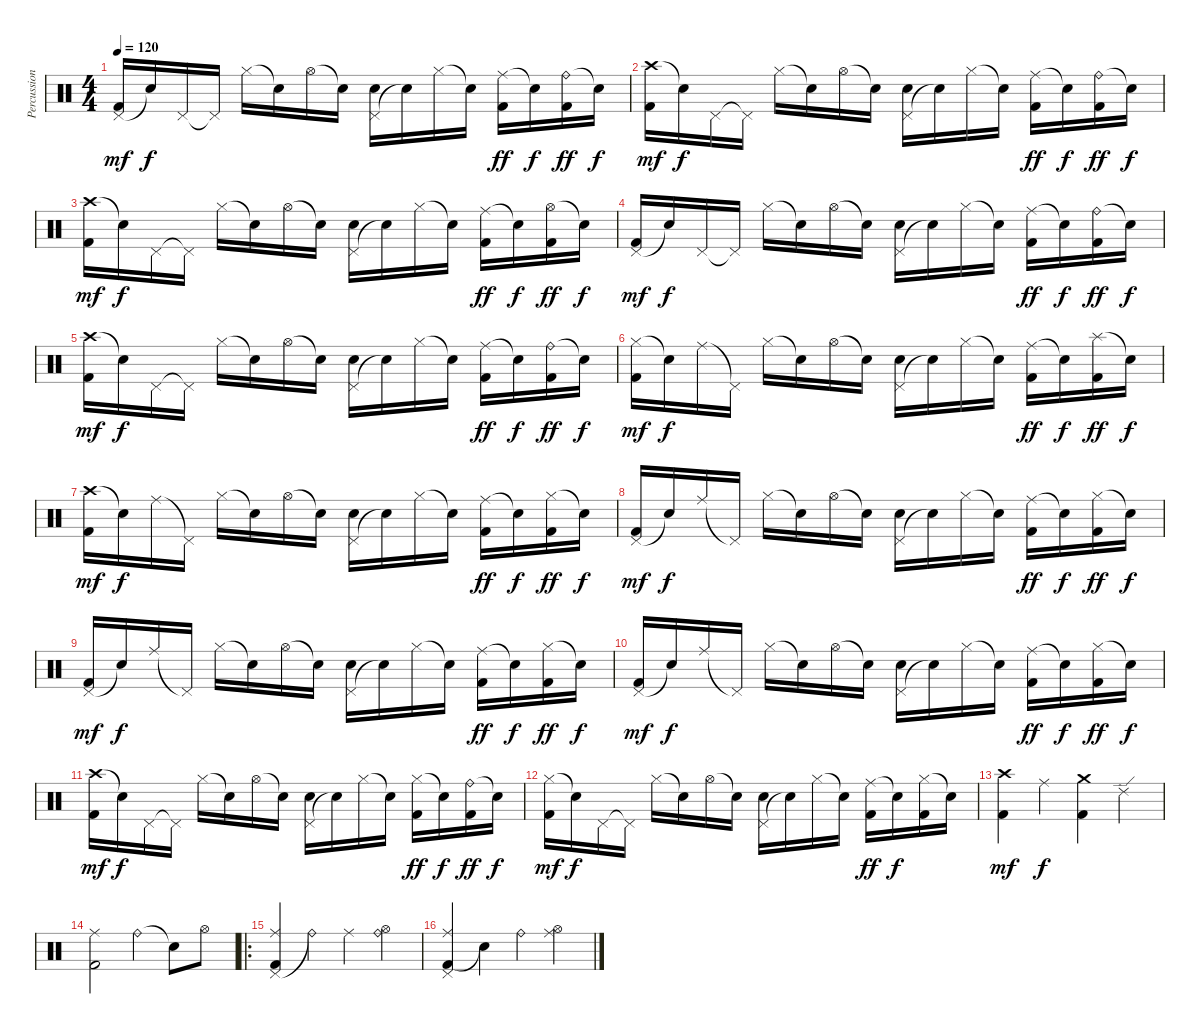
\track ("Percussioni" "Percussion") {instrument percussion}
\staff {score}
\articulation defaults
\ts (4 4)
\tempo 120
\clef neutral
\ks c
("Pedal Hi-Hat (hit)" "Kick (hit) 2").16{dy mf} "Snare (hit)"{t}.16{dy f} "Pedal Hi-Hat (hit)".16 "Pedal Hi-Hat (hit)"{t}.16 "Hi-Hat (closed)".16 "Snare (hit)"{t}.16 "Hi-Hat (open)".16 "Snare (hit)"{t}.16 ("Pedal Hi-Hat (hit)" "Metronome (bell)").16 "Snare (hit)"{t}.16 "Hi-Hat (closed)".16 "Snare (hit)"{t}.16 ("Ride (middle)" "Kick (hit) 2").16{dy ff} "Snare (hit)"{t}.16{dy f} ("Ride (bell)" "Kick (hit) 2").16{dy ff} "Snare (hit)"{t}.16{dy f} |
("Crash high (hit)" "Kick (hit) 2").16{dy mf} "Snare (hit)"{t}.16{dy f} "Pedal Hi-Hat (hit)".16 "Pedal Hi-Hat (hit)"{t}.16 "Hi-Hat (closed)".16 "Snare (hit)"{t}.16 "Hi-Hat (open)".16 "Snare (hit)"{t}.16 ("Pedal Hi-Hat (hit)" "Metronome (bell)").16 "Snare (hit)"{t}.16 "Hi-Hat (closed)".16 "Snare (hit)"{t}.16 ("Ride (middle)" "Kick (hit) 2").16{dy ff} "Snare (hit)"{t}.16{dy f} ("Ride (bell)" "Kick (hit) 2").16{dy ff} "Snare (hit)"{t}.16{dy f} |
("Crash high (hit)" "Kick (hit) 2").16{dy mf} "Snare (hit)"{t}.16{dy f} "Pedal Hi-Hat (hit)".16 "Pedal Hi-Hat (hit)"{t}.16 "Hi-Hat (closed)".16 "Snare (hit)"{t}.16 "Hi-Hat (open)".16 "Snare (hit)"{t}.16 ("Pedal Hi-Hat (hit)" "Metronome (bell)").16 "Snare (hit)"{t}.16 "Hi-Hat (closed)".16 "Snare (hit)"{t}.16 ("Ride (middle)" "Kick (hit) 2").16{dy ff} "Snare (hit)"{t}.16{dy f} ("Hi-Hat (open)" "Kick (hit) 2").16{dy ff} "Snare (hit)"{t}.16{dy f} |
("Pedal Hi-Hat (hit)" "Kick (hit) 2").16{dy mf} "Snare (hit)"{t}.16{dy f} "Pedal Hi-Hat (hit)".16 "Pedal Hi-Hat (hit)"{t}.16 "Hi-Hat (closed)".16 "Snare (hit)"{t}.16 "Hi-Hat (open)".16 "Snare (hit)"{t}.16 ("Pedal Hi-Hat (hit)" "Metronome (bell)").16 "Snare (hit)"{t}.16 "Hi-Hat (closed)".16 "Snare (hit)"{t}.16 ("Ride (middle)" "Kick (hit) 2").16{dy ff} "Snare (hit)"{t}.16{dy f} ("Ride (bell)" "Kick (hit) 2").16{dy ff} "Snare (hit)"{t}.16{dy f} |
("Crash high (hit)" "Kick (hit) 2").16{dy mf} "Snare (hit)"{t}.16{dy f} "Pedal Hi-Hat (hit)".16 "Pedal Hi-Hat (hit)"{t}.16 "Hi-Hat (closed)".16 "Snare (hit)"{t}.16 "Hi-Hat (open)".16 "Snare (hit)"{t}.16 ("Pedal Hi-Hat (hit)" "Metronome (bell)").16 "Snare (hit)"{t}.16 "Hi-Hat (closed)".16 "Snare (hit)"{t}.16 ("Ride (middle)" "Kick (hit) 2").16{dy ff} "Snare (hit)"{t}.16{dy f} ("Ride (bell)" "Kick (hit) 2").16{dy ff} "Snare (hit)"{t}.16{dy f} |
("Hi-Hat (closed)" "Kick (hit) 2").16{dy mf} "Snare (hit)"{t}.16{dy f} "Ride (middle)".16 "Pedal Hi-Hat (hit)"{t}.16 "Hi-Hat (closed)".16 "Snare (hit)"{t}.16 "Hi-Hat (open)".16 "Snare (hit)"{t}.16 ("Pedal Hi-Hat (hit)" "Metronome (bell)").16 "Snare (hit)"{t}.16 "Hi-Hat (closed)".16 "Snare (hit)"{t}.16 ("Ride (middle)" "Kick (hit) 2").16{dy ff} "Snare (hit)"{t}.16{dy f} ("Splash (hit)" "Kick (hit) 2").16{dy ff} "Snare (hit)"{t}.16{dy f} |
("Crash high (hit)" "Kick (hit) 2").16{dy mf} "Snare (hit)"{t}.16{dy f} "Ride (middle)".16 "Pedal Hi-Hat (hit)"{t}.16 "Hi-Hat (closed)".16 "Snare (hit)"{t}.16 "Hi-Hat (open)".16 "Snare (hit)"{t}.16 ("Pedal Hi-Hat (hit)" "Metronome (bell)").16 "Snare (hit)"{t}.16 "Hi-Hat (closed)".16 "Snare (hit)"{t}.16 ("Ride (middle)" "Kick (hit) 2").16{dy ff} "Snare (hit)"{t}.16{dy f} ("Hi-Hat (closed)" "Kick (hit) 2").16{dy ff} "Snare (hit)"{t}.16{dy f} |
("Pedal Hi-Hat (hit)" "Kick (hit) 2").16{dy mf} "Snare (hit)"{t}.16{dy f} "Ride (middle)".16 "Pedal Hi-Hat (hit)"{t}.16 "Hi-Hat (closed)".16 "Snare (hit)"{t}.16 "Hi-Hat (open)".16 "Snare (hit)"{t}.16 ("Pedal Hi-Hat (hit)" "Metronome (bell)").16 "Snare (hit)"{t}.16 "Hi-Hat (closed)".16 "Snare (hit)"{t}.16 ("Ride (middle)" "Kick (hit) 2").16{dy ff} "Snare (hit)"{t}.16{dy f} ("Hi-Hat (closed)" "Kick (hit) 2").16{dy ff} "Snare (hit)"{t}.16{dy f} |
("Pedal Hi-Hat (hit)" "Kick (hit) 2").16{dy mf} "Snare (hit)"{t}.16{dy f} "Ride (middle)".16 "Pedal Hi-Hat (hit)"{t}.16 "Hi-Hat (closed)".16 "Snare (hit)"{t}.16 "Hi-Hat (open)".16 "Snare (hit)"{t}.16 ("Pedal Hi-Hat (hit)" "Metronome (bell)").16 "Snare (hit)"{t}.16 "Hi-Hat (closed)".16 "Snare (hit)"{t}.16 ("Ride (middle)" "Kick (hit) 2").16{dy ff} "Snare (hit)"{t}.16{dy f} ("Hi-Hat (closed)" "Kick (hit) 2").16{dy ff} "Snare (hit)"{t}.16{dy f} |
("Pedal Hi-Hat (hit)" "Kick (hit) 2").16{dy mf} "Snare (hit)"{t}.16{dy f} "Ride (middle)".16 "Pedal Hi-Hat (hit)"{t}.16 "Hi-Hat (closed)".16 "Snare (hit)"{t}.16 "Hi-Hat (open)".16 "Snare (hit)"{t}.16 ("Pedal Hi-Hat (hit)" "Metronome (bell)").16 "Snare (hit)"{t}.16 "Hi-Hat (closed)".16 "Snare (hit)"{t}.16 ("Ride (middle)" "Kick (hit) 2").16{dy ff} "Snare (hit)"{t}.16{dy f} ("Hi-Hat (closed)" "Kick (hit) 2").16{dy ff} "Snare (hit)"{t}.16{dy f} |
("Crash high (hit)" "Kick (hit) 2").16{dy mf} "Snare (hit)"{t}.16{dy f} "Pedal Hi-Hat (hit)".16 "Pedal Hi-Hat (hit)"{t}.16 "Hi-Hat (closed)".16 "Snare (hit)"{t}.16 "Hi-Hat (open)".16 "Snare (hit)"{t}.16 ("Pedal Hi-Hat (hit)" "Metronome (bell)").16 "Snare (hit)"{t}.16 "Hi-Hat (closed)".16 "Snare (hit)"{t}.16 ("Hi-Hat (closed)" "Kick (hit) 2").16{dy ff} "Snare (hit)"{t}.16{dy f} ("Ride (bell)" "Kick (hit) 2").16{dy ff} "Snare (hit)"{t}.16{dy f} |
("Hi-Hat (closed)" "Kick (hit) 2").16{dy mf} "Snare (hit)"{t}.16{dy f} "Pedal Hi-Hat (hit)".16 "Pedal Hi-Hat (hit)"{t}.16 "Hi-Hat (closed)".16 "Snare (hit)"{t}.16 "Hi-Hat (open)".16 "Snare (hit)"{t}.16 ("Pedal Hi-Hat (hit)" "Metronome (bell)").16 "Snare (hit)"{t}.16 "Hi-Hat (closed)".16 "Snare (hit)"{t}.16 ("Ride (middle)" "Kick (hit) 2").16{dy ff} "Snare (hit)"{t}.16{dy f} ("Hi-Hat (closed)" "Kick (hit) 2").16 "Snare (hit)"{t}.16 |
("Crash high (hit)" "Kick (hit) 2").4{dy mf} "Ride (middle)".4{dy f} ("Crash medium (hit)" "Kick (hit) 2").4 "Ride (edge) 2".4 |
("Ride (middle)" "Kick (hit) 2").2 "Ride (bell)".4 "Snare (hit)"{t}.8 "Hi-Hat (open)".8 |
\ro
("Pedal Hi-Hat (hit)" "Ride (middle)" "Kick (hit) 2").4 "Ride (bell)"{t}.4 "Ride (middle)".4 ("Ride (bell)" "Hi-Hat (open)").4 |
("Kick (hit) 2" "Ride (middle)" "Pedal Hi-Hat (hit)").4 "Snare (hit)"{t}.4 "Ride (bell)".4 ("Ride (middle)" "Hi-Hat (open)").4
